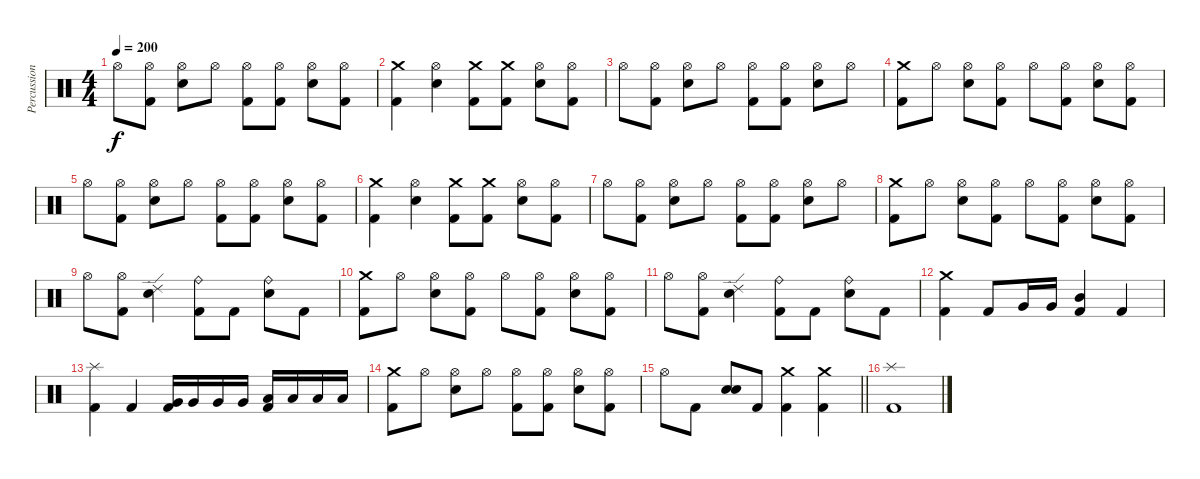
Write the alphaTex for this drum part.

\track ("Percussion" "Percussion") {instrument percussion}
\staff {score}
\articulation defaults
\ts (4 4)
\tempo 200
\clef neutral
\ks c "Hi-Hat (open)".8{dy f}
("Hi-Hat (open)" "Kick (hit) 2").8 ("Hi-Hat (open)" "Electric Snare (hit)").8 "Hi-Hat (open)".8 ("Hi-Hat (open)" "Kick (hit) 2").8 ("Hi-Hat (open)" "Kick (hit) 2").8 ("Hi-Hat (open)" "Electric Snare (hit)").8 ("Hi-Hat (open)" "Kick (hit) 2").8 |
("Crash medium (hit)" "Kick (hit) 2").4 ("Hi-Hat (open)" "Electric Snare (hit)").4 ("Crash medium (hit)" "Kick (hit) 2").8 ("Crash medium (hit)" "Kick (hit) 2").8 ("Hi-Hat (open)" "Electric Snare (hit)").8 ("Hi-Hat (open)" "Kick (hit) 2").8 |
"Hi-Hat (open)".8 ("Hi-Hat (open)" "Kick (hit) 2").8 ("Hi-Hat (open)" "Electric Snare (hit)").8 "Hi-Hat (open)".8 ("Hi-Hat (open)" "Kick (hit) 2").8 ("Hi-Hat (open)" "Kick (hit) 2").8 ("Hi-Hat (open)" "Electric Snare (hit)").8 "Hi-Hat (open)".8 |
("Crash medium (hit)" "Kick (hit) 2").8 "Hi-Hat (open)".8 ("Hi-Hat (open)" "Electric Snare (hit)").8 ("Hi-Hat (open)" "Kick (hit) 2").8 "Hi-Hat (open)".8 ("Hi-Hat (open)" "Kick (hit) 2").8 ("Hi-Hat (open)" "Electric Snare (hit)").8 ("Hi-Hat (open)" "Kick (hit) 2").8 |
"Hi-Hat (open)".8 ("Hi-Hat (open)" "Kick (hit) 2").8 ("Hi-Hat (open)" "Electric Snare (hit)").8 "Hi-Hat (open)".8 ("Hi-Hat (open)" "Kick (hit) 2").8 ("Hi-Hat (open)" "Kick (hit) 2").8 ("Hi-Hat (open)" "Electric Snare (hit)").8 ("Hi-Hat (open)" "Kick (hit) 2").8 |
("Crash medium (hit)" "Kick (hit) 2").4 ("Hi-Hat (open)" "Electric Snare (hit)").4 ("Crash medium (hit)" "Kick (hit) 2").8 ("Crash medium (hit)" "Kick (hit) 2").8 ("Hi-Hat (open)" "Electric Snare (hit)").8 ("Hi-Hat (open)" "Kick (hit) 2").8 |
"Hi-Hat (open)".8 ("Hi-Hat (open)" "Kick (hit) 2").8 ("Hi-Hat (open)" "Electric Snare (hit)").8 "Hi-Hat (open)".8 ("Hi-Hat (open)" "Kick (hit) 2").8 ("Hi-Hat (open)" "Kick (hit) 2").8 ("Hi-Hat (open)" "Electric Snare (hit)").8 "Hi-Hat (open)".8 |
("Crash medium (hit)" "Kick (hit) 2").8 "Hi-Hat (open)".8 ("Hi-Hat (open)" "Electric Snare (hit)").8 ("Hi-Hat (open)" "Kick (hit) 2").8 "Hi-Hat (open)".8 ("Hi-Hat (open)" "Kick (hit) 2").8 ("Hi-Hat (open)" "Electric Snare (hit)").8 ("Hi-Hat (open)" "Kick (hit) 2").8 |
"Hi-Hat (open)".8 ("Hi-Hat (open)" "Kick (hit) 2").8 ("Ride (edge) 2" "Electric Snare (hit)").4 ("Ride (bell)" "Kick (hit) 2").8 "Kick (hit) 2".8 ("Ride (bell)" "Electric Snare (hit)").8 "Kick (hit) 2".8 |
("Crash medium (hit)" "Kick (hit) 2").8 "Hi-Hat (open)".8 ("Hi-Hat (open)" "Electric Snare (hit)").8 ("Hi-Hat (open)" "Kick (hit) 2").8 "Hi-Hat (open)".8 ("Hi-Hat (open)" "Kick (hit) 2").8 ("Hi-Hat (open)" "Electric Snare (hit)").8 ("Hi-Hat (open)" "Kick (hit) 2").8 |
"Hi-Hat (open)".8 ("Hi-Hat (open)" "Kick (hit) 2").8 ("Ride (edge) 2" "Electric Snare (hit)").4 ("Ride (bell)" "Kick (hit) 2").8 "Kick (hit) 2".8 ("Ride (bell)" "Electric Snare (hit)").8 "Kick (hit) 2".8 |
("Crash medium (hit)" "Kick (hit) 2").4 "Kick (hit) 2".8 "Very Low Tom (hit)".16 "Very Low Tom (hit)".16 ("Mid Tom (hit)" "Kick (hit) 2").4 "Kick (hit) 2".4 |
("Splash (hit)" "Kick (hit) 2").4 "Kick (hit) 2".4 ("Very Low Tom (hit)" "Kick (hit) 2").16 "Very Low Tom (hit)".16 "Very Low Tom (hit)".16 "Very Low Tom (hit)".16 ("Low Floor Tom (hit)" "Kick (hit) 2").16 "Low Floor Tom (hit)".16 "Low Floor Tom (hit)".16 "Low Floor Tom (hit)".16 |
("Crash medium (hit)" "Kick (hit) 2").8 "Hi-Hat (open)".8 ("Hi-Hat (open)" "Electric Snare (hit)").8 "Hi-Hat (open)".8 ("Hi-Hat (open)" "Kick (hit) 2").8 ("Hi-Hat (open)" "Kick (hit) 2").8 ("Hi-Hat (open)" "Electric Snare (hit)").8 ("Hi-Hat (open)" "Kick (hit) 2").8 |
\barLineRight lightlight "Hi-Hat (open)".8 "Kick (hit) 2".8
("Electric Snare (hit)" "Electric Snare (hit)").8 "Kick (hit) 2".8 ("Crash medium (hit)" "Kick (hit) 2").4 ("Crash medium (hit)" "Kick (hit) 2").4 |
("Splash (hit)" "Kick (hit) 2").1
